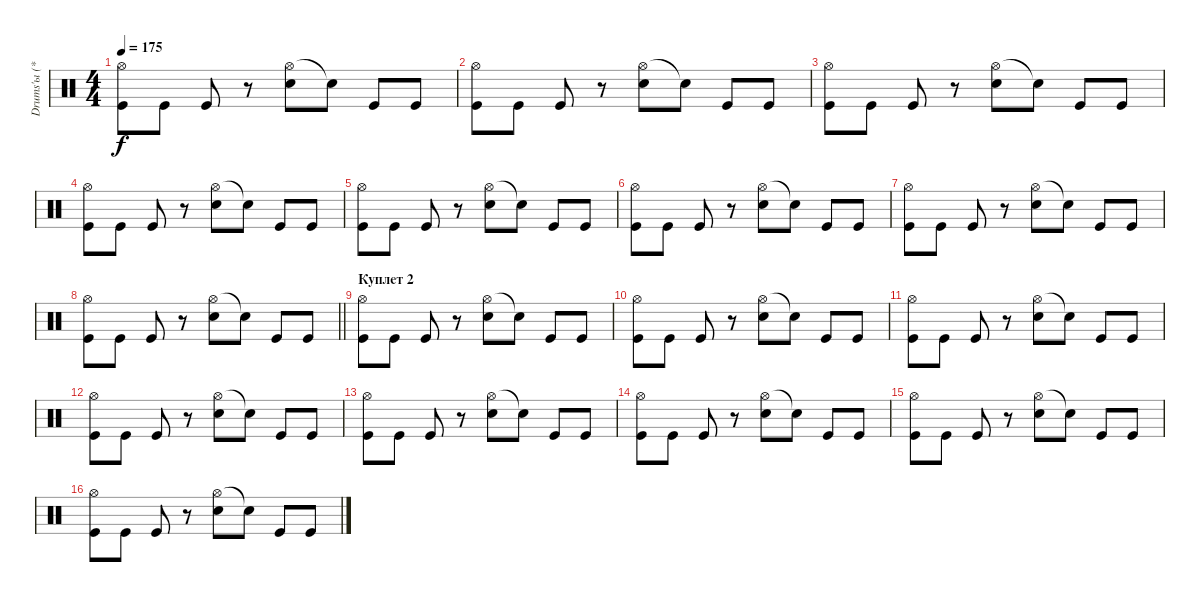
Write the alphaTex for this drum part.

\track ("Drums'ы (***)" "Drums'ы (*") {instrument percussion}
\staff {score}
\articulation defaults
\ts (4 4)
\tempo 175
\clef neutral
\ks c
("Hi-Hat (open)" "Kick (hit)").8{dy f} "Kick (hit)".8 "Kick (hit)".8 r.8 ("Hi-Hat (open)" "Electric Snare (hit)").8 "Snare (hit)"{t}.8 "Kick (hit)".8 "Kick (hit)".8 |
("Hi-Hat (open)" "Kick (hit)").8 "Kick (hit)".8 "Kick (hit)".8 r.8 ("Hi-Hat (open)" "Electric Snare (hit)").8 "Snare (hit)"{t}.8 "Kick (hit)".8 "Kick (hit)".8 |
("Hi-Hat (open)" "Kick (hit)").8 "Kick (hit)".8 "Kick (hit)".8 r.8 ("Hi-Hat (open)" "Electric Snare (hit)").8 "Snare (hit)"{t}.8 "Kick (hit)".8 "Kick (hit)".8 |
("Hi-Hat (open)" "Kick (hit)").8 "Kick (hit)".8 "Kick (hit)".8 r.8 ("Hi-Hat (open)" "Electric Snare (hit)").8 "Snare (hit)"{t}.8 "Kick (hit)".8 "Kick (hit)".8 |
("Hi-Hat (open)" "Kick (hit)").8 "Kick (hit)".8 "Kick (hit)".8 r.8 ("Hi-Hat (open)" "Electric Snare (hit)").8 "Snare (hit)"{t}.8 "Kick (hit)".8 "Kick (hit)".8 |
("Hi-Hat (open)" "Kick (hit)").8 "Kick (hit)".8 "Kick (hit)".8 r.8 ("Hi-Hat (open)" "Electric Snare (hit)").8 "Snare (hit)"{t}.8 "Kick (hit)".8 "Kick (hit)".8 |
("Hi-Hat (open)" "Kick (hit)").8 "Kick (hit)".8 "Kick (hit)".8 r.8 ("Hi-Hat (open)" "Electric Snare (hit)").8 "Snare (hit)"{t}.8 "Kick (hit)".8 "Kick (hit)".8 |
\barLineRight lightlight
("Hi-Hat (open)" "Kick (hit)").8 "Kick (hit)".8 "Kick (hit)".8 r.8 ("Hi-Hat (open)" "Electric Snare (hit)").8 "Snare (hit)"{t}.8 "Kick (hit)".8 "Kick (hit)".8 |
\section ("" "Куплет 2")
("Hi-Hat (open)" "Kick (hit)").8 "Kick (hit)".8 "Kick (hit)".8 r.8 ("Hi-Hat (open)" "Electric Snare (hit)").8 "Snare (hit)"{t}.8 "Kick (hit)".8 "Kick (hit)".8 |
("Hi-Hat (open)" "Kick (hit)").8 "Kick (hit)".8 "Kick (hit)".8 r.8 ("Hi-Hat (open)" "Electric Snare (hit)").8 "Snare (hit)"{t}.8 "Kick (hit)".8 "Kick (hit)".8 |
("Hi-Hat (open)" "Kick (hit)").8 "Kick (hit)".8 "Kick (hit)".8 r.8 ("Hi-Hat (open)" "Electric Snare (hit)").8 "Snare (hit)"{t}.8 "Kick (hit)".8 "Kick (hit)".8 |
("Hi-Hat (open)" "Kick (hit)").8 "Kick (hit)".8 "Kick (hit)".8 r.8 ("Hi-Hat (open)" "Electric Snare (hit)").8 "Snare (hit)"{t}.8 "Kick (hit)".8 "Kick (hit)".8 |
("Hi-Hat (open)" "Kick (hit)").8 "Kick (hit)".8 "Kick (hit)".8 r.8 ("Hi-Hat (open)" "Electric Snare (hit)").8 "Snare (hit)"{t}.8 "Kick (hit)".8 "Kick (hit)".8 |
("Hi-Hat (open)" "Kick (hit)").8 "Kick (hit)".8 "Kick (hit)".8 r.8 ("Hi-Hat (open)" "Electric Snare (hit)").8 "Snare (hit)"{t}.8 "Kick (hit)".8 "Kick (hit)".8 |
("Hi-Hat (open)" "Kick (hit)").8 "Kick (hit)".8 "Kick (hit)".8 r.8 ("Hi-Hat (open)" "Electric Snare (hit)").8 "Snare (hit)"{t}.8 "Kick (hit)".8 "Kick (hit)".8 |
("Hi-Hat (open)" "Kick (hit)").8 "Kick (hit)".8 "Kick (hit)".8 r.8 ("Hi-Hat (open)" "Electric Snare (hit)").8 "Snare (hit)"{t}.8 "Kick (hit)".8 "Kick (hit)".8
